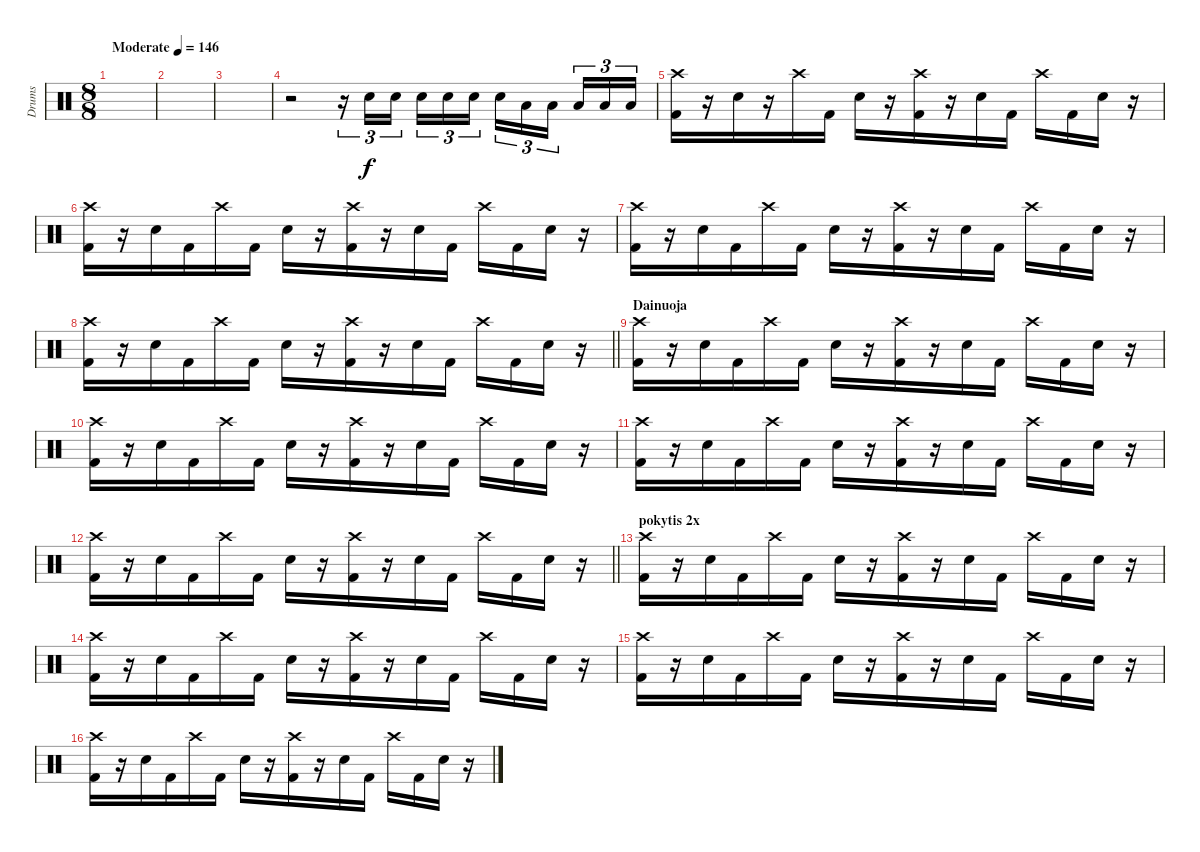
\track ("Drums" "Drums") {instrument percussion}
\staff {score}
\articulation defaults
\ts (8 8)
\tempo (146 "Moderate")
\clef neutral
\ks c
|
|
|
r.2 r.16{tu (3 2)} "Snare (hit) 2".16{tu (3 2)} "Snare (hit) 2".16{tu (3 2)} "Snare (hit) 2".16{tu (3 2)} "Snare (hit) 2".16{tu (3 2)} "Snare (hit) 2".16{tu (3 2)} "Snare (hit) 2".16{tu (3 2)} "Low Tom (hit)".16{tu (3 2)} "Low Tom (hit)".16{tu (3 2)} "Low Floor Tom (hit)".16{tu (3 2)} "Low Floor Tom (hit)".16{tu (3 2)} "Low Floor Tom (hit)".16{tu (3 2)} |
("Crash high (hit)" "Kick (hit) 2").16 r.16 "Snare (hit) 2".16 r.16 "Crash high (hit)".16 "Kick (hit) 2".16 "Snare (hit) 2".16 r.16 ("Crash high (hit)" "Kick (hit) 2").16 r.16 "Snare (hit) 2".16 "Kick (hit) 2".16 "Crash high (hit)".16 "Kick (hit) 2".16 "Snare (hit) 2".16 r.16 |
("Crash high (hit)" "Kick (hit) 2").16 r.16 "Snare (hit) 2".16 "Kick (hit) 2".16 "Crash high (hit)".16 "Kick (hit) 2".16 "Snare (hit) 2".16 r.16 ("Crash high (hit)" "Kick (hit) 2").16 r.16 "Snare (hit) 2".16 "Kick (hit) 2".16 "Crash high (hit)".16 "Kick (hit) 2".16 "Snare (hit) 2".16 r.16 |
("Crash high (hit)" "Kick (hit) 2").16 r.16 "Snare (hit) 2".16 "Kick (hit) 2".16 "Crash high (hit)".16 "Kick (hit) 2".16 "Snare (hit) 2".16 r.16 ("Crash high (hit)" "Kick (hit) 2").16 r.16 "Snare (hit) 2".16 "Kick (hit) 2".16 "Crash high (hit)".16 "Kick (hit) 2".16 "Snare (hit) 2".16 r.16 |
\barLineRight lightlight
("Crash high (hit)" "Kick (hit) 2").16 r.16 "Snare (hit) 2".16 "Kick (hit) 2".16 "Crash high (hit)".16 "Kick (hit) 2".16 "Snare (hit) 2".16 r.16 ("Crash high (hit)" "Kick (hit) 2").16 r.16 "Snare (hit) 2".16 "Kick (hit) 2".16 "Crash high (hit)".16 "Kick (hit) 2".16 "Snare (hit) 2".16 r.16 |
\section ("" "Dainuoja")
("Crash high (hit)" "Kick (hit) 2").16 r.16 "Snare (hit) 2".16 "Kick (hit) 2".16 "Crash high (hit)".16 "Kick (hit) 2".16 "Snare (hit) 2".16 r.16 ("Crash high (hit)" "Kick (hit) 2").16 r.16 "Snare (hit) 2".16 "Kick (hit) 2".16 "Crash high (hit)".16 "Kick (hit) 2".16 "Snare (hit) 2".16 r.16 |
("Crash high (hit)" "Kick (hit) 2").16 r.16 "Snare (hit) 2".16 "Kick (hit) 2".16 "Crash high (hit)".16 "Kick (hit) 2".16 "Snare (hit) 2".16 r.16 ("Crash high (hit)" "Kick (hit) 2").16 r.16 "Snare (hit) 2".16 "Kick (hit) 2".16 "Crash high (hit)".16 "Kick (hit) 2".16 "Snare (hit) 2".16 r.16 |
("Crash high (hit)" "Kick (hit) 2").16 r.16 "Snare (hit) 2".16 "Kick (hit) 2".16 "Crash high (hit)".16 "Kick (hit) 2".16 "Snare (hit) 2".16 r.16 ("Crash high (hit)" "Kick (hit) 2").16 r.16 "Snare (hit) 2".16 "Kick (hit) 2".16 "Crash high (hit)".16 "Kick (hit) 2".16 "Snare (hit) 2".16 r.16 |
\barLineRight lightlight
("Crash high (hit)" "Kick (hit) 2").16 r.16 "Snare (hit) 2".16 "Kick (hit) 2".16 "Crash high (hit)".16 "Kick (hit) 2".16 "Snare (hit) 2".16 r.16 ("Crash high (hit)" "Kick (hit) 2").16 r.16 "Snare (hit) 2".16 "Kick (hit) 2".16 "Crash high (hit)".16 "Kick (hit) 2".16 "Snare (hit) 2".16 r.16 |
\section ("" "pokytis 2x")
("Crash high (hit)" "Kick (hit) 2").16 r.16 "Snare (hit) 2".16 "Kick (hit) 2".16 "Crash high (hit)".16 "Kick (hit) 2".16 "Snare (hit) 2".16 r.16 ("Crash high (hit)" "Kick (hit) 2").16 r.16 "Snare (hit) 2".16 "Kick (hit) 2".16 "Crash high (hit)".16 "Kick (hit) 2".16 "Snare (hit) 2".16 r.16 |
("Crash high (hit)" "Kick (hit) 2").16 r.16 "Snare (hit) 2".16 "Kick (hit) 2".16 "Crash high (hit)".16 "Kick (hit) 2".16 "Snare (hit) 2".16 r.16 ("Crash high (hit)" "Kick (hit) 2").16 r.16 "Snare (hit) 2".16 "Kick (hit) 2".16 "Crash high (hit)".16 "Kick (hit) 2".16 "Snare (hit) 2".16 r.16 |
("Crash high (hit)" "Kick (hit) 2").16 r.16 "Snare (hit) 2".16 "Kick (hit) 2".16 "Crash high (hit)".16 "Kick (hit) 2".16 "Snare (hit) 2".16 r.16 ("Crash high (hit)" "Kick (hit) 2").16 r.16 "Snare (hit) 2".16 "Kick (hit) 2".16 "Crash high (hit)".16 "Kick (hit) 2".16 "Snare (hit) 2".16 r.16 |
("Crash high (hit)" "Kick (hit) 2").16 r.16 "Snare (hit) 2".16 "Kick (hit) 2".16 "Crash high (hit)".16 "Kick (hit) 2".16 "Snare (hit) 2".16 r.16 ("Crash high (hit)" "Kick (hit) 2").16 r.16 "Snare (hit) 2".16 "Kick (hit) 2".16 "Crash high (hit)".16 "Kick (hit) 2".16 "Snare (hit) 2".16 r.16
